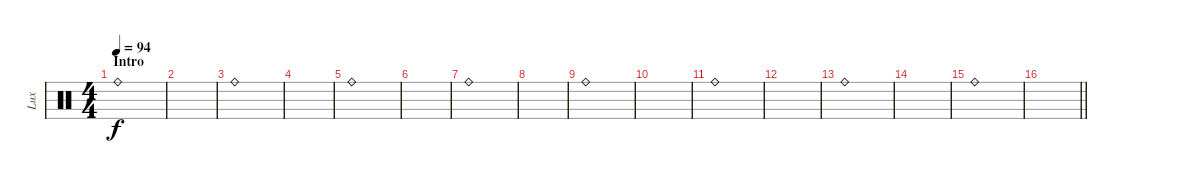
\track ("Lux" "Lux") {instrument percussion}
\staff {score}
\articulation defaults
\ts (4 4)
\section ("" "Intro")
\tempo 94
\clef neutral
\ks c "Ride (bell)".1{dy f}
|
|
"Ride (bell)".1 |
|
"Ride (bell)".1 |
|
"Ride (bell)".1 |
|
"Ride (bell)".1 |
|
"Ride (bell)".1 |
|
"Ride (bell)".1 |
|
"Ride (bell)".1 |
\barLineRight lightlight
